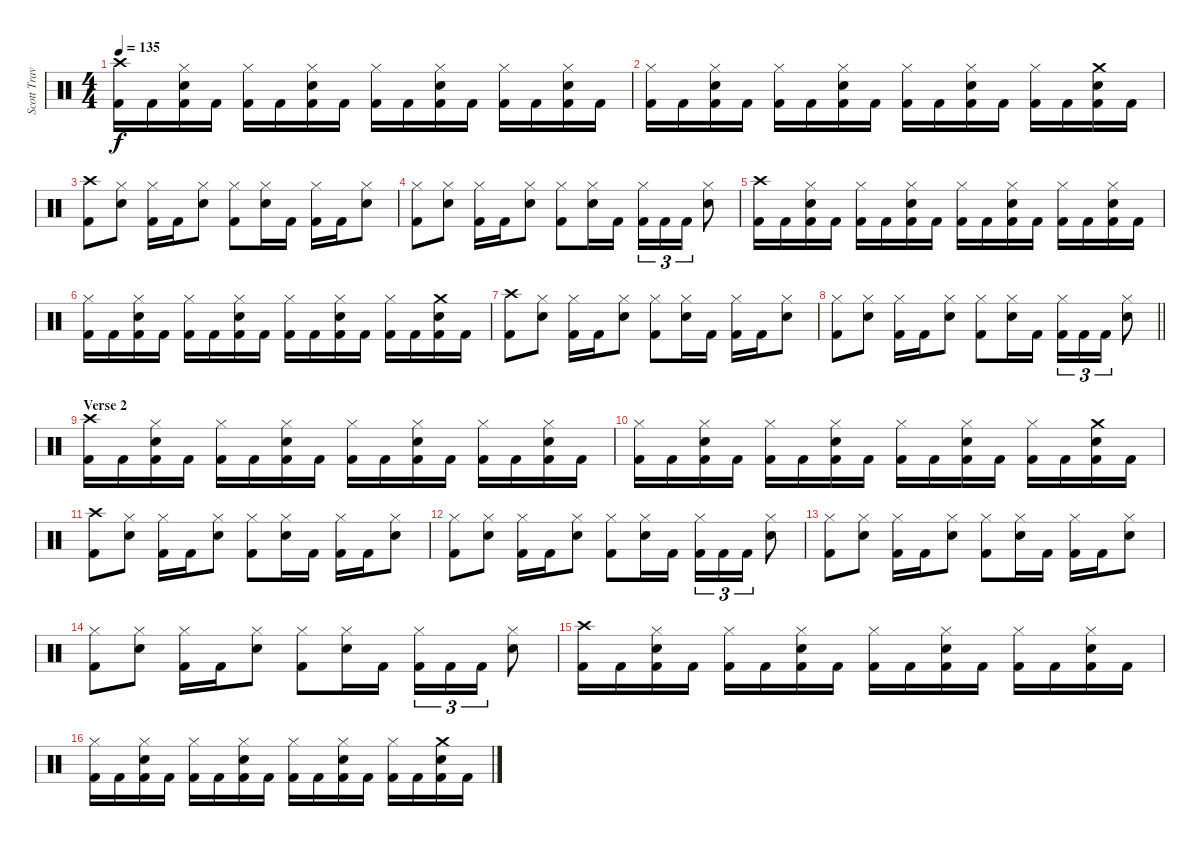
\track ("Scott Travis" "Scott Trav") {instrument percussion}
\staff {score}
\articulation defaults
\ts (4 4)
\tempo 135
\clef neutral
\ks c
("Crash high (hit)" "Kick (hit) 2").16{dy f} "Kick (hit) 2".16 ("Hi-Hat (closed)" "Snare (hit) 2" "Kick (hit) 2").16 "Kick (hit) 2".16 ("Hi-Hat (closed)" "Kick (hit) 2").16 "Kick (hit) 2".16 ("Hi-Hat (closed)" "Snare (hit) 2" "Kick (hit) 2").16 "Kick (hit) 2".16 ("Hi-Hat (closed)" "Kick (hit) 2").16 "Kick (hit) 2".16 ("Hi-Hat (closed)" "Snare (hit) 2" "Kick (hit) 2").16 "Kick (hit) 2".16 ("Hi-Hat (closed)" "Kick (hit) 2").16 "Kick (hit) 2".16 ("Hi-Hat (closed)" "Snare (hit) 2" "Kick (hit) 2").16 "Kick (hit) 2".16 |
("Hi-Hat (closed)" "Kick (hit) 2").16 "Kick (hit) 2".16 ("Hi-Hat (closed)" "Snare (hit) 2" "Kick (hit) 2").16 "Kick (hit) 2".16 ("Hi-Hat (closed)" "Kick (hit) 2").16 "Kick (hit) 2".16 ("Hi-Hat (closed)" "Snare (hit) 2" "Kick (hit) 2").16 "Kick (hit) 2".16 ("Hi-Hat (closed)" "Kick (hit) 2").16 "Kick (hit) 2".16 ("Hi-Hat (closed)" "Snare (hit) 2" "Kick (hit) 2").16 "Kick (hit) 2".16 ("Hi-Hat (closed)" "Kick (hit) 2").16 "Kick (hit) 2".16 ("Crash medium (hit)" "Snare (hit) 2" "Kick (hit) 2").16 "Kick (hit) 2".16 |
("Crash high (hit)" "Kick (hit) 2").8 ("Hi-Hat (closed)" "Snare (hit) 2").8 ("Hi-Hat (closed)" "Kick (hit) 2").16 "Kick (hit) 2".16 ("Hi-Hat (closed)" "Snare (hit) 2").8 ("Hi-Hat (closed)" "Kick (hit) 2").8 ("Hi-Hat (closed)" "Snare (hit) 2").16 "Kick (hit) 2".16 ("Hi-Hat (closed)" "Kick (hit) 2").16 "Kick (hit) 2".16 ("Hi-Hat (closed)" "Snare (hit) 2").8 |
("Hi-Hat (closed)" "Kick (hit) 2").8 ("Hi-Hat (closed)" "Snare (hit) 2").8 ("Hi-Hat (closed)" "Kick (hit) 2").16 "Kick (hit) 2".16 ("Hi-Hat (closed)" "Snare (hit) 2").8 ("Hi-Hat (closed)" "Kick (hit) 2").8 ("Hi-Hat (closed)" "Snare (hit) 2").16 "Kick (hit) 2".16 ("Hi-Hat (closed)" "Kick (hit) 2").16{tu (3 2)} "Kick (hit) 2".16{tu (3 2)} "Kick (hit) 2".16{tu (3 2)} ("Hi-Hat (closed)" "Snare (hit) 2").8 |
("Crash high (hit)" "Kick (hit) 2").16 "Kick (hit) 2".16 ("Hi-Hat (closed)" "Snare (hit) 2" "Kick (hit) 2").16 "Kick (hit) 2".16 ("Hi-Hat (closed)" "Kick (hit) 2").16 "Kick (hit) 2".16 ("Hi-Hat (closed)" "Snare (hit) 2" "Kick (hit) 2").16 "Kick (hit) 2".16 ("Hi-Hat (closed)" "Kick (hit) 2").16 "Kick (hit) 2".16 ("Hi-Hat (closed)" "Snare (hit) 2" "Kick (hit) 2").16 "Kick (hit) 2".16 ("Hi-Hat (closed)" "Kick (hit) 2").16 "Kick (hit) 2".16 ("Hi-Hat (closed)" "Snare (hit) 2" "Kick (hit) 2").16 "Kick (hit) 2".16 |
("Hi-Hat (closed)" "Kick (hit) 2").16 "Kick (hit) 2".16 ("Hi-Hat (closed)" "Snare (hit) 2" "Kick (hit) 2").16 "Kick (hit) 2".16 ("Hi-Hat (closed)" "Kick (hit) 2").16 "Kick (hit) 2".16 ("Hi-Hat (closed)" "Snare (hit) 2" "Kick (hit) 2").16 "Kick (hit) 2".16 ("Hi-Hat (closed)" "Kick (hit) 2").16 "Kick (hit) 2".16 ("Hi-Hat (closed)" "Snare (hit) 2" "Kick (hit) 2").16 "Kick (hit) 2".16 ("Hi-Hat (closed)" "Kick (hit) 2").16 "Kick (hit) 2".16 ("Crash medium (hit)" "Snare (hit) 2" "Kick (hit) 2").16 "Kick (hit) 2".16 |
("Crash high (hit)" "Kick (hit) 2").8 ("Hi-Hat (closed)" "Snare (hit) 2").8 ("Hi-Hat (closed)" "Kick (hit) 2").16 "Kick (hit) 2".16 ("Hi-Hat (closed)" "Snare (hit) 2").8 ("Hi-Hat (closed)" "Kick (hit) 2").8 ("Hi-Hat (closed)" "Snare (hit) 2").16 "Kick (hit) 2".16 ("Hi-Hat (closed)" "Kick (hit) 2").16 "Kick (hit) 2".16 ("Hi-Hat (closed)" "Snare (hit) 2").8 |
\barLineRight lightlight
("Hi-Hat (closed)" "Kick (hit) 2").8 ("Hi-Hat (closed)" "Snare (hit) 2").8 ("Hi-Hat (closed)" "Kick (hit) 2").16 "Kick (hit) 2".16 ("Hi-Hat (closed)" "Snare (hit) 2").8 ("Hi-Hat (closed)" "Kick (hit) 2").8 ("Hi-Hat (closed)" "Snare (hit) 2").16 "Kick (hit) 2".16 ("Hi-Hat (closed)" "Kick (hit) 2").16{tu (3 2)} "Kick (hit) 2".16{tu (3 2)} "Kick (hit) 2".16{tu (3 2)} ("Hi-Hat (closed)" "Snare (hit) 2").8 |
\section ("" "Verse 2")
("Crash high (hit)" "Kick (hit) 2").16 "Kick (hit) 2".16 ("Hi-Hat (closed)" "Snare (hit) 2" "Kick (hit) 2").16 "Kick (hit) 2".16 ("Hi-Hat (closed)" "Kick (hit) 2").16 "Kick (hit) 2".16 ("Hi-Hat (closed)" "Snare (hit) 2" "Kick (hit) 2").16 "Kick (hit) 2".16 ("Hi-Hat (closed)" "Kick (hit) 2").16 "Kick (hit) 2".16 ("Hi-Hat (closed)" "Snare (hit) 2" "Kick (hit) 2").16 "Kick (hit) 2".16 ("Hi-Hat (closed)" "Kick (hit) 2").16 "Kick (hit) 2".16 ("Hi-Hat (closed)" "Snare (hit) 2" "Kick (hit) 2").16 "Kick (hit) 2".16 |
("Hi-Hat (closed)" "Kick (hit) 2").16 "Kick (hit) 2".16 ("Hi-Hat (closed)" "Snare (hit) 2" "Kick (hit) 2").16 "Kick (hit) 2".16 ("Hi-Hat (closed)" "Kick (hit) 2").16 "Kick (hit) 2".16 ("Hi-Hat (closed)" "Snare (hit) 2" "Kick (hit) 2").16 "Kick (hit) 2".16 ("Hi-Hat (closed)" "Kick (hit) 2").16 "Kick (hit) 2".16 ("Hi-Hat (closed)" "Snare (hit) 2" "Kick (hit) 2").16 "Kick (hit) 2".16 ("Hi-Hat (closed)" "Kick (hit) 2").16 "Kick (hit) 2".16 ("Crash medium (hit)" "Snare (hit) 2" "Kick (hit) 2").16 "Kick (hit) 2".16 |
("Crash high (hit)" "Kick (hit) 2").8 ("Hi-Hat (closed)" "Snare (hit) 2").8 ("Hi-Hat (closed)" "Kick (hit) 2").16 "Kick (hit) 2".16 ("Hi-Hat (closed)" "Snare (hit) 2").8 ("Hi-Hat (closed)" "Kick (hit) 2").8 ("Hi-Hat (closed)" "Snare (hit) 2").16 "Kick (hit) 2".16 ("Hi-Hat (closed)" "Kick (hit) 2").16 "Kick (hit) 2".16 ("Hi-Hat (closed)" "Snare (hit) 2").8 |
("Hi-Hat (closed)" "Kick (hit) 2").8 ("Hi-Hat (closed)" "Snare (hit) 2").8 ("Hi-Hat (closed)" "Kick (hit) 2").16 "Kick (hit) 2".16 ("Hi-Hat (closed)" "Snare (hit) 2").8 ("Hi-Hat (closed)" "Kick (hit) 2").8 ("Hi-Hat (closed)" "Snare (hit) 2").16 "Kick (hit) 2".16 ("Hi-Hat (closed)" "Kick (hit) 2").16{tu (3 2)} "Kick (hit) 2".16{tu (3 2)} "Kick (hit) 2".16{tu (3 2)} ("Hi-Hat (closed)" "Snare (hit) 2").8 |
("Hi-Hat (closed)" "Kick (hit) 2").8 ("Hi-Hat (closed)" "Snare (hit) 2").8 ("Hi-Hat (closed)" "Kick (hit) 2").16 "Kick (hit) 2".16 ("Hi-Hat (closed)" "Snare (hit) 2").8 ("Hi-Hat (closed)" "Kick (hit) 2").8 ("Hi-Hat (closed)" "Snare (hit) 2").16 "Kick (hit) 2".16 ("Hi-Hat (closed)" "Kick (hit) 2").16 "Kick (hit) 2".16 ("Hi-Hat (closed)" "Snare (hit) 2").8 |
("Hi-Hat (closed)" "Kick (hit) 2").8 ("Hi-Hat (closed)" "Snare (hit) 2").8 ("Hi-Hat (closed)" "Kick (hit) 2").16 "Kick (hit) 2".16 ("Hi-Hat (closed)" "Snare (hit) 2").8 ("Hi-Hat (closed)" "Kick (hit) 2").8 ("Hi-Hat (closed)" "Snare (hit) 2").16 "Kick (hit) 2".16 ("Hi-Hat (closed)" "Kick (hit) 2").16{tu (3 2)} "Kick (hit) 2".16{tu (3 2)} "Kick (hit) 2".16{tu (3 2)} ("Hi-Hat (closed)" "Snare (hit) 2").8 |
("Crash high (hit)" "Kick (hit) 2").16 "Kick (hit) 2".16 ("Hi-Hat (closed)" "Snare (hit) 2" "Kick (hit) 2").16 "Kick (hit) 2".16 ("Hi-Hat (closed)" "Kick (hit) 2").16 "Kick (hit) 2".16 ("Hi-Hat (closed)" "Snare (hit) 2" "Kick (hit) 2").16 "Kick (hit) 2".16 ("Hi-Hat (closed)" "Kick (hit) 2").16 "Kick (hit) 2".16 ("Hi-Hat (closed)" "Snare (hit) 2" "Kick (hit) 2").16 "Kick (hit) 2".16 ("Hi-Hat (closed)" "Kick (hit) 2").16 "Kick (hit) 2".16 ("Hi-Hat (closed)" "Snare (hit) 2" "Kick (hit) 2").16 "Kick (hit) 2".16 |
("Hi-Hat (closed)" "Kick (hit) 2").16 "Kick (hit) 2".16 ("Hi-Hat (closed)" "Snare (hit) 2" "Kick (hit) 2").16 "Kick (hit) 2".16 ("Hi-Hat (closed)" "Kick (hit) 2").16 "Kick (hit) 2".16 ("Hi-Hat (closed)" "Snare (hit) 2" "Kick (hit) 2").16 "Kick (hit) 2".16 ("Hi-Hat (closed)" "Kick (hit) 2").16 "Kick (hit) 2".16 ("Hi-Hat (closed)" "Snare (hit) 2" "Kick (hit) 2").16 "Kick (hit) 2".16 ("Hi-Hat (closed)" "Kick (hit) 2").16 "Kick (hit) 2".16 ("Crash medium (hit)" "Snare (hit) 2" "Kick (hit) 2").16 "Kick (hit) 2".16
